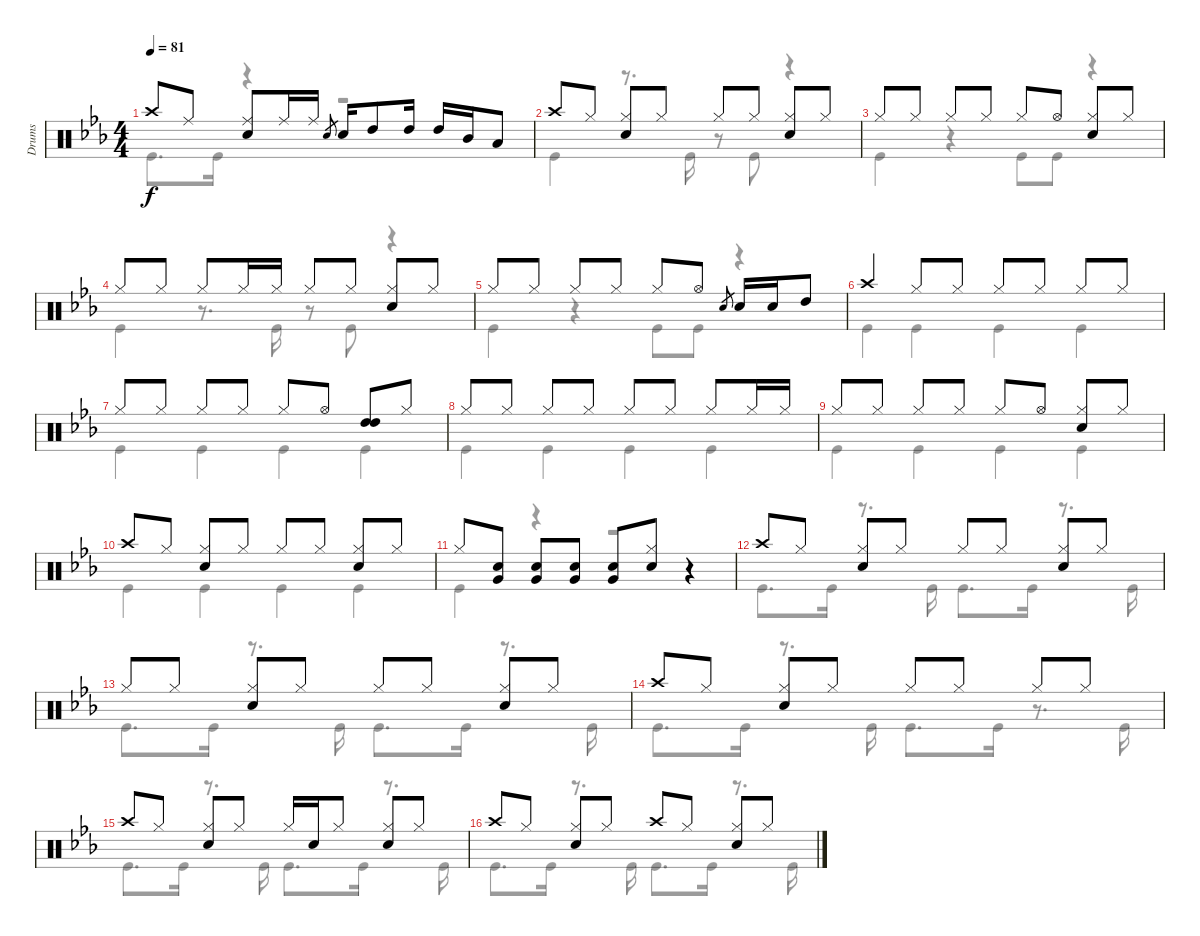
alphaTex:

\track ("Drums" "Drums") {instrument percussion}
\staff {score}
\articulation defaults
\voice
\ts (4 4)
\tempo 81
\clef neutral
\ks eb "Crash high (hit)".8{dy f beam Up} "Ride (middle)".8{beam Up}
("Ride (middle)" "Snare (hit) 2").8{beam Up} "Ride (middle)".16{beam Up} "Ride (middle)".16{beam Up} "Snare (hit) 2".8{gr} "Snare (hit) 2".16{beam Up} "High Tom (hit)".8{beam Up} "High Tom (hit)".16{beam Up} "High Tom (hit)".16{beam Up} "Mid Tom (hit)".16{beam Up} "Low Tom (hit)".8{beam Up} |
"Crash high (hit)".8{beam Up} "Hi-Hat (closed)".8{beam Up} ("Hi-Hat (closed)" "Snare (hit) 2").8{beam Up} "Hi-Hat (closed)".8{beam Up} "Hi-Hat (closed)".8{beam Up} "Hi-Hat (closed)".8{beam Up} ("Hi-Hat (closed)" "Snare (hit) 2").8{beam Up} "Hi-Hat (closed)".8{beam Up} |
"Hi-Hat (closed)".8{beam Up} "Hi-Hat (closed)".8{beam Up} "Hi-Hat (closed)".8{beam Up} "Hi-Hat (closed)".8{beam Up} "Hi-Hat (closed)".8{beam Up} "Hi-Hat (open)".8{beam Up} ("Snare (hit) 2" "Hi-Hat (closed)").8{beam Up} "Hi-Hat (closed)".8{beam Up} |
"Hi-Hat (closed)".8{beam Up} "Hi-Hat (closed)".8{beam Up} "Hi-Hat (closed)".8{beam Up} "Hi-Hat (closed)".16{beam Up} "Hi-Hat (closed)".16{beam Up} "Hi-Hat (closed)".8{beam Up} "Hi-Hat (closed)".8{beam Up} ("Hi-Hat (closed)" "Snare (hit) 2").8{beam Up} "Hi-Hat (closed)".8{beam Up} |
"Hi-Hat (closed)".8{beam Up} "Hi-Hat (closed)".8{beam Up} "Hi-Hat (closed)".8{beam Up} "Hi-Hat (closed)".8{beam Up} "Hi-Hat (closed)".8{beam Up} "Hi-Hat (open)".8{beam Up} "Snare (hit) 2".8{gr} "Snare (hit) 2".16{beam Up} "Snare (hit) 2".16{beam Up} "High Tom (hit)".8{beam Up} |
"Crash high (hit)".4{beam Up} "Hi-Hat (closed)".8{beam Up} "Hi-Hat (closed)".8{beam Up} "Hi-Hat (closed)".8{beam Up} "Hi-Hat (closed)".8{beam Up} "Hi-Hat (closed)".8{beam Up} "Hi-Hat (closed)".8{beam Up} |
"Hi-Hat (closed)".8{beam Up} "Hi-Hat (closed)".8{beam Up} "Hi-Hat (closed)".8{beam Up} "Hi-Hat (closed)".8{beam Up} "Hi-Hat (closed)".8{beam Up} "Hi-Hat (open)".8{beam Up} ("High Tom (hit)" "High Tom (hit)").8{beam Up} "Hi-Hat (closed)".8{beam Up} |
"Hi-Hat (closed)".8{beam Up} "Hi-Hat (closed)".8{beam Up} "Hi-Hat (closed)".8{beam Up} "Hi-Hat (closed)".8{beam Up} "Hi-Hat (closed)".8{beam Up} "Hi-Hat (closed)".8{beam Up} "Hi-Hat (closed)".8{beam Up} "Hi-Hat (closed)".16{beam Up} "Hi-Hat (closed)".16{beam Up} |
"Hi-Hat (closed)".8{beam Up} "Hi-Hat (closed)".8{beam Up} "Hi-Hat (closed)".8{beam Up} "Hi-Hat (closed)".8{beam Up} "Hi-Hat (closed)".8{beam Up} "Hi-Hat (open)".8{beam Up} ("Snare (hit) 2" "Hi-Hat (closed)").8{beam Up} "Hi-Hat (closed)".8{beam Up} |
"Crash high (hit)".8{beam Up} "Hi-Hat (closed)".8{beam Up} ("Hi-Hat (closed)" "Snare (hit) 2").8{beam Up} "Hi-Hat (closed)".8{beam Up} "Hi-Hat (closed)".8{beam Up} "Hi-Hat (closed)".8{beam Up} ("Hi-Hat (closed)" "Snare (hit) 2").8{beam Up} "Hi-Hat (closed)".8{beam Up} |
"Hi-Hat (closed)".8{beam Up} ("Snare (hit) 2" "Very Low Tom (hit)").8{beam Up} ("Very Low Tom (hit)" "Snare (hit) 2").8{beam Up} ("Snare (hit) 2" "Very Low Tom (hit)").8{beam Up} ("Very Low Tom (hit)" "Snare (hit) 2").8{beam Up} ("Snare (hit) 2" "Hi-Hat (closed)").8{beam Up} r.4 |
"Crash high (hit)".8{beam Up} "Hi-Hat (closed)".8{beam Up} ("Hi-Hat (closed)" "Snare (hit) 2").8{beam Up} "Hi-Hat (closed)".8{beam Up} "Hi-Hat (closed)".8{beam Up} "Hi-Hat (closed)".8{beam Up} ("Hi-Hat (closed)" "Snare (hit) 2").8{beam Up} "Hi-Hat (closed)".8{beam Up} |
"Hi-Hat (closed)".8{beam Up} "Hi-Hat (closed)".8{beam Up} ("Hi-Hat (closed)" "Snare (hit) 2").8{beam Up} "Hi-Hat (closed)".8{beam Up} "Hi-Hat (closed)".8{beam Up} "Hi-Hat (closed)".8{beam Up} ("Hi-Hat (closed)" "Snare (hit) 2").8{beam Up} "Hi-Hat (closed)".8{beam Up} |
"Crash high (hit)".8{beam Up} "Hi-Hat (closed)".8{beam Up} ("Hi-Hat (closed)" "Snare (hit) 2").8{beam Up} "Hi-Hat (closed)".8{beam Up} "Hi-Hat (closed)".8{beam Up} "Hi-Hat (closed)".8{beam Up} "Hi-Hat (closed)".8{beam Up} "Hi-Hat (closed)".8{beam Up} |
"Crash high (hit)".8{beam Up} "Hi-Hat (closed)".8{beam Up} ("Hi-Hat (closed)" "Snare (hit) 2").8{beam Up} "Hi-Hat (closed)".8{beam Up} "Hi-Hat (closed)".16{beam Up} "Snare (hit) 2".16{beam Up} "Hi-Hat (closed)".8{beam Up} ("Hi-Hat (closed)" "Snare (hit) 2").8{beam Up} "Hi-Hat (closed)".8{beam Up} |
"Crash high (hit)".8{beam Up} "Hi-Hat (closed)".8{beam Up} ("Hi-Hat (closed)" "Snare (hit) 2").8{beam Up} "Hi-Hat (closed)".8{beam Up} "Crash high (hit)".8{beam Up} "Hi-Hat (closed)".8{beam Up} ("Hi-Hat (closed)" "Snare (hit) 2").8{beam Up} "Hi-Hat (closed)".8{beam Up}
\voice
\clef neutral
\ottava regular
\simile none
\ks eb "Kick (hit)".8{d dy f} "Kick (hit)".16
r.4 r.2 |
"Kick (hit)".4 r.8{d} "Kick (hit)".16 r.8 "Kick (hit)".8 r.4 |
"Kick (hit)".4 r.4 "Kick (hit)".8 "Kick (hit)".8 r.4 |
"Kick (hit)".4 r.8{d} "Kick (hit)".16 r.8 "Kick (hit)".8 r.4 |
"Kick (hit)".4 r.4 "Kick (hit)".8 "Kick (hit)".8 r.4 |
"Kick (hit)".4 "Kick (hit)".4 "Kick (hit)".4 "Kick (hit)".4 |
"Kick (hit)".4 "Kick (hit)".4 "Kick (hit)".4 "Kick (hit)".4 |
"Kick (hit)".4 "Kick (hit)".4 "Kick (hit)".4 "Kick (hit)".4 |
"Kick (hit)".4 "Kick (hit)".4 "Kick (hit)".4 "Kick (hit)".4 |
"Kick (hit)".4 "Kick (hit)".4 "Kick (hit)".4 "Kick (hit)".4 |
"Kick (hit)".4 r.4 r.2 |
"Kick (hit)".8{d} "Kick (hit)".16 r.8{d} "Kick (hit)".16 "Kick (hit)".8{d} "Kick (hit)".16 r.8{d} "Kick (hit)".16 |
"Kick (hit)".8{d} "Kick (hit)".16 r.8{d} "Kick (hit)".16 "Kick (hit)".8{d} "Kick (hit)".16 r.8{d} "Kick (hit)".16 |
"Kick (hit)".8{d} "Kick (hit)".16 r.8{d} "Kick (hit)".16 "Kick (hit)".8{d} "Kick (hit)".16 r.8{d} "Kick (hit)".16 |
"Kick (hit)".8{d} "Kick (hit)".16 r.8{d} "Kick (hit)".16 "Kick (hit)".8{d} "Kick (hit)".16 r.8{d} "Kick (hit)".16 |
"Kick (hit)".8{d} "Kick (hit)".16 r.8{d} "Kick (hit)".16 "Kick (hit)".8{d} "Kick (hit)".16 r.8{d} "Kick (hit)".16
